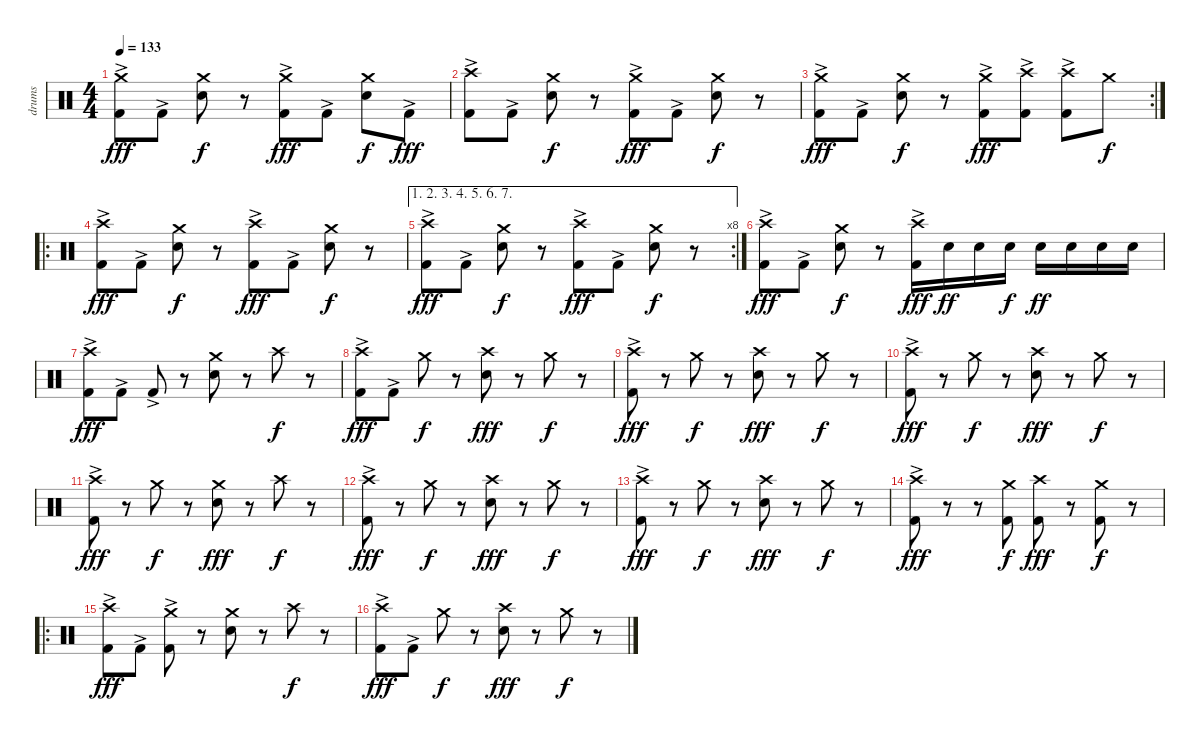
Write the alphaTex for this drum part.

\track ("drums" "drums") {instrument percussion}
\staff {score}
\articulation defaults
\ts (4 4)
\tempo 133
\clef neutral
\ks c
("Kick (hit) 2"{ac} "Crash medium (hit)").8{dy fff} "Kick (hit) 2"{ac}.8 ("Crash medium (hit)" "Snare (hit) 2").8{dy f} r.8 ("Kick (hit) 2"{ac} "Crash medium (hit)").8{dy fff} "Kick (hit) 2"{ac}.8 ("Crash medium (hit)" "Snare (hit) 2").8{dy f} "Kick (hit) 2"{ac}.8{dy fff} |
("Kick (hit) 2"{ac} "Crash high (hit)").8 "Kick (hit) 2"{ac}.8 ("Crash medium (hit)" "Snare (hit) 2").8{dy f} r.8 ("Kick (hit) 2"{ac} "Crash medium (hit)").8{dy fff} "Kick (hit) 2"{ac}.8 ("Crash medium (hit)" "Snare (hit) 2").8{dy f} r.8 |
\rc 2
("Kick (hit) 2"{ac} "Crash medium (hit)").8{dy fff} "Kick (hit) 2"{ac}.8 ("Crash medium (hit)" "Snare (hit) 2").8{dy f} r.8 ("Kick (hit) 2"{ac} "Crash medium (hit)").8{dy fff} ("Kick (hit) 2"{ac} "Crash high (hit)").8 ("Kick (hit) 2"{ac} "Crash high (hit)").8 "Crash medium (hit)".8{dy f} |
\ro
("Kick (hit) 2"{ac} "Crash high (hit)").8{dy fff} "Kick (hit) 2"{ac}.8 ("Crash medium (hit)" "Snare (hit) 2").8{dy f} r.8 ("Kick (hit) 2"{ac} "Crash high (hit)").8{dy fff} "Kick (hit) 2"{ac}.8 ("Crash medium (hit)" "Snare (hit) 2").8{dy f} r.8 |
\ae (1 2 3 4 5 6 7)
\rc 8
("Kick (hit) 2"{ac} "Crash high (hit)").8{dy fff} "Kick (hit) 2"{ac}.8 ("Crash medium (hit)" "Snare (hit) 2").8{dy f} r.8 ("Kick (hit) 2"{ac} "Crash high (hit)").8{dy fff} "Kick (hit) 2"{ac}.8 ("Crash medium (hit)" "Snare (hit) 2").8{dy f} r.8 |
("Kick (hit) 2"{ac} "Crash high (hit)").8{dy fff} "Kick (hit) 2"{ac}.8 ("Crash medium (hit)" "Snare (hit) 2").8{dy f} r.8 ("Kick (hit) 2"{ac} "Crash high (hit)").16{dy fff} "Snare (hit) 2".16{dy ff} "Snare (hit) 2".16 "Snare (hit) 2".16{dy f} "Snare (hit) 2".16{dy ff} "Snare (hit) 2".16 "Snare (hit) 2".16 "Snare (hit) 2".16 |
("Kick (hit) 2"{ac} "Crash high (hit)").8{dy fff} "Kick (hit) 2"{ac}.8 "Kick (hit) 2"{ac}.8 r.8 ("Crash medium (hit)" "Snare (hit) 2").8 r.8 "Crash high (hit)".8{dy f} r.8 |
("Kick (hit) 2"{ac} "Crash high (hit)").8{dy fff} "Kick (hit) 2"{ac}.8 "Crash medium (hit)".8{dy f} r.8 ("Crash high (hit)" "Snare (hit) 2").8{dy fff} r.8 "Crash medium (hit)".8{dy f} r.8 |
("Kick (hit) 2"{ac} "Crash high (hit)").8{dy fff} r.8 "Crash medium (hit)".8{dy f} r.8 ("Crash high (hit)" "Snare (hit) 2").8{dy fff} r.8 "Crash medium (hit)".8{dy f} r.8 |
("Kick (hit) 2"{ac} "Crash high (hit)").8{dy fff} r.8 "Crash medium (hit)".8{dy f} r.8 ("Crash high (hit)" "Snare (hit) 2").8{dy fff} r.8 "Crash medium (hit)".8{dy f} r.8 |
("Kick (hit) 2"{ac} "Crash high (hit)").8{dy fff} r.8 "Crash medium (hit)".8{dy f} r.8 ("Crash medium (hit)" "Snare (hit) 2").8{dy fff} r.8 "Crash high (hit)".8{dy f} r.8 |
("Kick (hit) 2"{ac} "Crash high (hit)").8{dy fff} r.8 "Crash medium (hit)".8{dy f} r.8 ("Crash high (hit)" "Snare (hit) 2").8{dy fff} r.8 "Crash medium (hit)".8{dy f} r.8 |
("Kick (hit) 2"{ac} "Crash high (hit)").8{dy fff} r.8 "Crash medium (hit)".8{dy f} r.8 ("Crash high (hit)" "Snare (hit) 2").8{dy fff} r.8 "Crash medium (hit)".8{dy f} r.8 |
("Kick (hit) 2"{ac} "Crash high (hit)").8{dy fff} r.8 r.8 ("Kick (hit) 2" "Crash medium (hit)").8{dy f} ("Kick (hit) 2" "Crash high (hit)").8{dy fff} r.8 ("Kick (hit) 2" "Crash medium (hit)").8{dy f} r.8 |
\ro
("Kick (hit) 2"{ac} "Crash high (hit)").8{dy fff} "Kick (hit) 2"{ac}.8 ("Kick (hit) 2"{ac} "Crash medium (hit)").8 r.8 ("Crash medium (hit)" "Snare (hit) 2").8 r.8 "Crash high (hit)".8{dy f} r.8 |
("Kick (hit) 2"{ac} "Crash high (hit)").8{dy fff} "Kick (hit) 2"{ac}.8 "Crash medium (hit)".8{dy f} r.8 ("Crash high (hit)" "Snare (hit) 2").8{dy fff} r.8 "Crash medium (hit)".8{dy f} r.8
